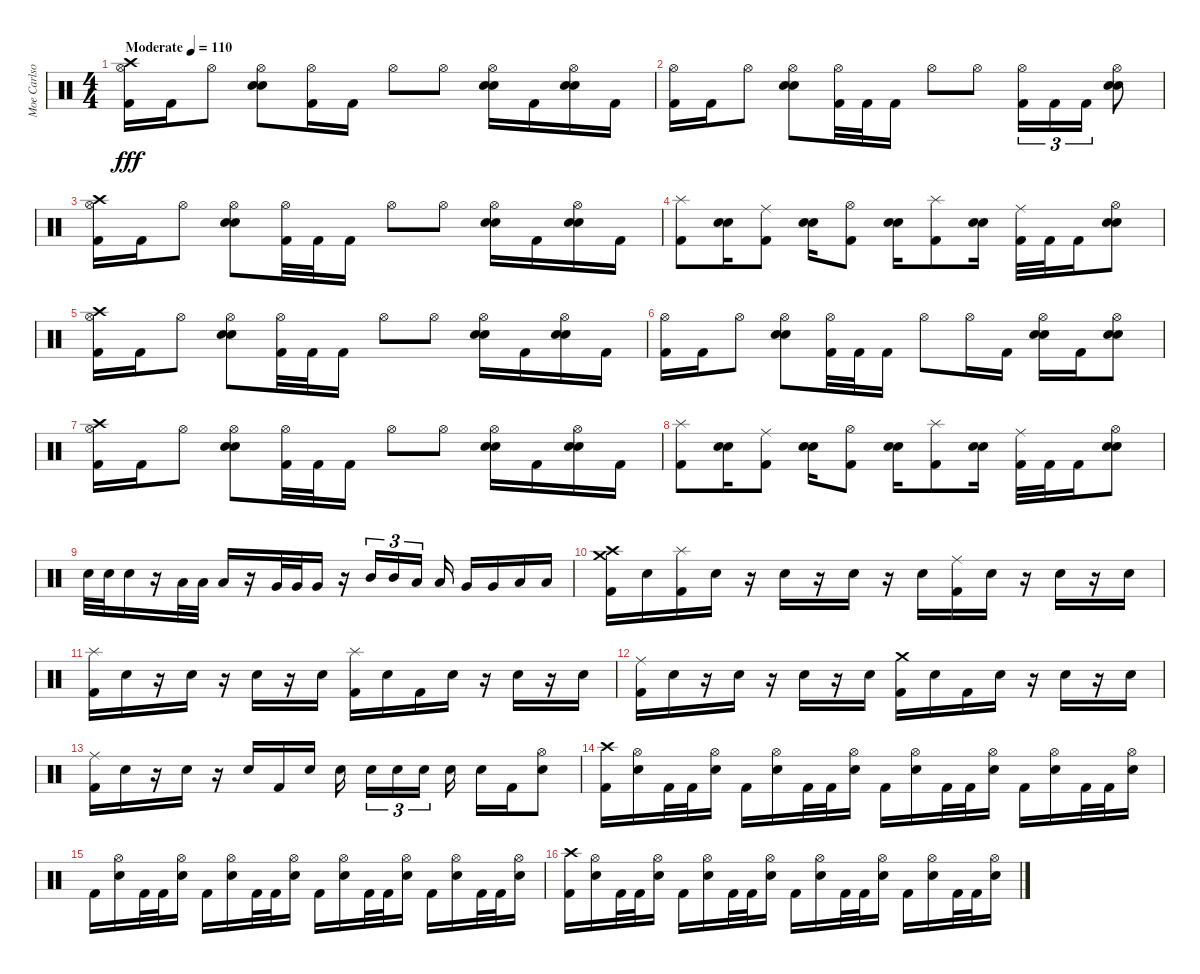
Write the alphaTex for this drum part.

\track ("Moe Carlson" "Moe Carlso") {instrument percussion}
\staff {score}
\articulation defaults
\ts (4 4)
\tempo (110 "Moderate")
\clef neutral
\ks c
("Crash high (hit)" "Hi-Hat (open)" "Kick (hit) 2").16{dy fff} "Kick (hit) 2".16 "Hi-Hat (open)".8 ("Hi-Hat (open)" "Electric Snare (hit)" "Snare (hit) 2").8 ("Hi-Hat (open)" "Kick (hit) 2").16 "Kick (hit) 2".16 "Hi-Hat (open)".8 "Hi-Hat (open)".8 ("Hi-Hat (open)" "Electric Snare (hit)" "Snare (hit) 2").16 "Kick (hit) 2".16 ("Hi-Hat (open)" "Electric Snare (hit)" "Snare (hit) 2").16 "Kick (hit) 2".16 |
("Hi-Hat (open)" "Kick (hit) 2").16 "Kick (hit) 2".16 "Hi-Hat (open)".8 ("Hi-Hat (open)" "Electric Snare (hit)" "Snare (hit) 2").8 ("Hi-Hat (open)" "Kick (hit) 2").32 "Kick (hit) 2".32 "Kick (hit) 2".16 "Hi-Hat (open)".8 "Hi-Hat (open)".8 ("Hi-Hat (open)" "Kick (hit) 2").16{tu (3 2)} "Kick (hit) 2".16{tu (3 2)} "Kick (hit) 2".16{tu (3 2)} ("Hi-Hat (open)" "Electric Snare (hit)" "Snare (hit) 2").8 |
("Crash high (hit)" "Hi-Hat (open)" "Kick (hit) 2").16 "Kick (hit) 2".16 "Hi-Hat (open)".8 ("Hi-Hat (open)" "Electric Snare (hit)" "Snare (hit) 2").8 ("Hi-Hat (open)" "Kick (hit) 2").32 "Kick (hit) 2".32 "Kick (hit) 2".16 "Hi-Hat (open)".8 "Hi-Hat (open)".8 ("Hi-Hat (open)" "Electric Snare (hit)" "Snare (hit) 2").16 "Kick (hit) 2".16 ("Hi-Hat (open)" "Electric Snare (hit)" "Snare (hit) 2").16 "Kick (hit) 2".16 |
("Splash (hit)" "Kick (hit) 2").8 ("Electric Snare (hit)" "Snare (hit) 2").16 ("Ride (middle)" "Kick (hit) 2").8 ("Electric Snare (hit)" "Snare (hit) 2").16 ("Hi-Hat (open)" "Kick (hit) 2").8 ("Electric Snare (hit)" "Snare (hit) 2").16 ("Splash (hit)" "Kick (hit) 2").8 ("Electric Snare (hit)" "Snare (hit) 2").16 ("Ride (middle)" "Kick (hit) 2").32 "Kick (hit) 2".32 "Kick (hit) 2".16 ("Hi-Hat (open)" "Electric Snare (hit)" "Snare (hit) 2").8 |
("Crash high (hit)" "Hi-Hat (open)" "Kick (hit) 2").16 "Kick (hit) 2".16 "Hi-Hat (open)".8 ("Hi-Hat (open)" "Electric Snare (hit)" "Snare (hit) 2").8 ("Hi-Hat (open)" "Kick (hit) 2").32 "Kick (hit) 2".32 "Kick (hit) 2".16 "Hi-Hat (open)".8 "Hi-Hat (open)".8 ("Hi-Hat (open)" "Electric Snare (hit)" "Snare (hit) 2").16 "Kick (hit) 2".16 ("Hi-Hat (open)" "Electric Snare (hit)" "Snare (hit) 2").16 "Kick (hit) 2".16 |
("Hi-Hat (open)" "Kick (hit) 2").16 "Kick (hit) 2".16 "Hi-Hat (open)".8 ("Hi-Hat (open)" "Electric Snare (hit)" "Snare (hit) 2").8 ("Hi-Hat (open)" "Kick (hit) 2").32 "Kick (hit) 2".32 "Kick (hit) 2".16 "Hi-Hat (open)".8 "Hi-Hat (open)".16 "Kick (hit) 2".16 ("Hi-Hat (open)" "Electric Snare (hit)" "Snare (hit) 2").16 "Kick (hit) 2".16 ("Hi-Hat (open)" "Electric Snare (hit)" "Snare (hit) 2").8 |
("Crash high (hit)" "Hi-Hat (open)" "Kick (hit) 2").16 "Kick (hit) 2".16 "Hi-Hat (open)".8 ("Hi-Hat (open)" "Electric Snare (hit)" "Snare (hit) 2").8 ("Hi-Hat (open)" "Kick (hit) 2").32 "Kick (hit) 2".32 "Kick (hit) 2".16 "Hi-Hat (open)".8 "Hi-Hat (open)".8 ("Hi-Hat (open)" "Electric Snare (hit)" "Snare (hit) 2").16 "Kick (hit) 2".16 ("Hi-Hat (open)" "Electric Snare (hit)" "Snare (hit) 2").16 "Kick (hit) 2".16 |
("Splash (hit)" "Kick (hit) 2").8 ("Electric Snare (hit)" "Snare (hit) 2").16 ("Ride (middle)" "Kick (hit) 2").8 ("Electric Snare (hit)" "Snare (hit) 2").16 ("Hi-Hat (open)" "Kick (hit) 2").8 ("Electric Snare (hit)" "Snare (hit) 2").16 ("Splash (hit)" "Kick (hit) 2").8 ("Electric Snare (hit)" "Snare (hit) 2").16 ("Ride (middle)" "Kick (hit) 2").32 "Kick (hit) 2".32 "Kick (hit) 2".16 ("Hi-Hat (open)" "Electric Snare (hit)" "Snare (hit) 2").8 |
"Electric Snare (hit)".32 "Electric Snare (hit)".32 "Electric Snare (hit)".16 r.16 "Low Tom (hit)".32 "Low Tom (hit)".32 "Low Tom (hit)".16 r.16 "Very Low Tom (hit)".32 "Very Low Tom (hit)".32 "Very Low Tom (hit)".16 r.16 "Mid Tom (hit)".16{tu (3 2)} "Mid Tom (hit)".16{tu (3 2)} "Low Tom (hit)".16{tu (3 2) beam splitsecondary} "Low Tom (hit)".16 "Very Low Tom (hit)".16 "Very Low Tom (hit)".16 "Low Floor Tom (hit)".16 "Low Floor Tom (hit)".16 |
("Crash medium (hit)" "Crash high (hit)" "Kick (hit) 2").16 "Electric Snare (hit)".16 ("Splash (hit)" "Kick (hit) 2").16 "Electric Snare (hit)".16 r.16 "Electric Snare (hit)".16 r.16 "Electric Snare (hit)".16 r.16 "Electric Snare (hit)".16 ("Ride (middle)" "Kick (hit) 2").16 "Electric Snare (hit)".16 r.16 "Electric Snare (hit)".16 r.16 "Electric Snare (hit)".16 |
("Splash (hit)" "Kick (hit) 2").16 "Electric Snare (hit)".16 r.16 "Electric Snare (hit)".16 r.16 "Electric Snare (hit)".16 r.16 "Electric Snare (hit)".16 ("Splash (hit)" "Kick (hit) 2").16 "Electric Snare (hit)".16 "Kick (hit) 2".16 "Electric Snare (hit)".16 r.16 "Electric Snare (hit)".16 r.16 "Electric Snare (hit)".16 |
("Ride (middle)" "Kick (hit) 2").16 "Electric Snare (hit)".16 r.16 "Electric Snare (hit)".16 r.16 "Electric Snare (hit)".16 r.16 "Electric Snare (hit)".16 ("Crash medium (hit)" "Kick (hit) 2").16 "Electric Snare (hit)".16 "Kick (hit) 2".16 "Electric Snare (hit)".16 r.16 "Electric Snare (hit)".16 r.16 "Electric Snare (hit)".16 |
("Ride (middle)" "Kick (hit) 2").16 "Electric Snare (hit)".16 r.16 "Electric Snare (hit)".16 r.16 "Electric Snare (hit)".16 "Kick (hit) 2".16 "Electric Snare (hit)".16 "Electric Snare (hit)".16{beam splitsecondary} "Electric Snare (hit)".16{tu (3 2)} "Electric Snare (hit)".16{tu (3 2)} "Electric Snare (hit)".16{tu (3 2) beam splitsecondary} "Electric Snare (hit)".16 "Electric Snare (hit)".16 "Kick (hit) 2".16 ("Hi-Hat (open)" "Electric Snare (hit)").8 |
("Crash high (hit)" "Kick (hit) 2").16 ("Hi-Hat (open)" "Electric Snare (hit)").16 "Kick (hit) 2".32 "Kick (hit) 2".32 ("Hi-Hat (open)" "Electric Snare (hit)").16 "Kick (hit) 2".16 ("Hi-Hat (open)" "Electric Snare (hit)").16 "Kick (hit) 2".32 "Kick (hit) 2".32 ("Hi-Hat (open)" "Electric Snare (hit)").16 "Kick (hit) 2".16 ("Hi-Hat (open)" "Electric Snare (hit)").16 "Kick (hit) 2".32 "Kick (hit) 2".32 ("Hi-Hat (open)" "Electric Snare (hit)").16 "Kick (hit) 2".16 ("Hi-Hat (open)" "Electric Snare (hit)").16 "Kick (hit) 2".32 "Kick (hit) 2".32 ("Hi-Hat (open)" "Electric Snare (hit)").16 |
"Kick (hit) 2".16 ("Hi-Hat (open)" "Electric Snare (hit)").16 "Kick (hit) 2".32 "Kick (hit) 2".32 ("Hi-Hat (open)" "Electric Snare (hit)").16 "Kick (hit) 2".16 ("Hi-Hat (open)" "Electric Snare (hit)").16 "Kick (hit) 2".32 "Kick (hit) 2".32 ("Hi-Hat (open)" "Electric Snare (hit)").16 "Kick (hit) 2".16 ("Hi-Hat (open)" "Electric Snare (hit)").16 "Kick (hit) 2".32 "Kick (hit) 2".32 ("Hi-Hat (open)" "Electric Snare (hit)").16 "Kick (hit) 2".16 ("Hi-Hat (open)" "Electric Snare (hit)").16 "Kick (hit) 2".32 "Kick (hit) 2".32 ("Hi-Hat (open)" "Electric Snare (hit)").16 |
("Crash high (hit)" "Kick (hit) 2").16 ("Hi-Hat (open)" "Electric Snare (hit)").16 "Kick (hit) 2".32 "Kick (hit) 2".32 ("Hi-Hat (open)" "Electric Snare (hit)").16 "Kick (hit) 2".16 ("Hi-Hat (open)" "Electric Snare (hit)").16 "Kick (hit) 2".32 "Kick (hit) 2".32 ("Hi-Hat (open)" "Electric Snare (hit)").16 "Kick (hit) 2".16 ("Hi-Hat (open)" "Electric Snare (hit)").16 "Kick (hit) 2".32 "Kick (hit) 2".32 ("Hi-Hat (open)" "Electric Snare (hit)").16 "Kick (hit) 2".16 ("Hi-Hat (open)" "Electric Snare (hit)").16 "Kick (hit) 2".32 "Kick (hit) 2".32 ("Hi-Hat (open)" "Electric Snare (hit)").16
